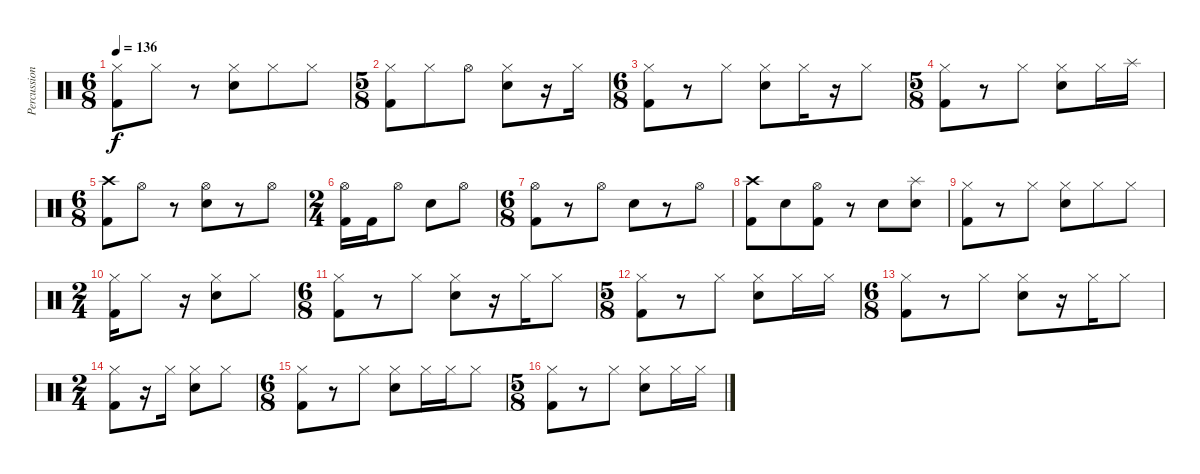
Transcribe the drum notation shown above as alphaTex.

\track ("Percussion" "Percussion") {instrument percussion}
\staff {score}
\articulation defaults
\ts (6 8)
\tempo 136
\clef neutral
\ks c
("Hi-Hat (closed)" "Kick (hit) 2").8{dy f} "Hi-Hat (closed)".8 r.8 ("Hi-Hat (closed)" "Snare (hit) 2").8 "Hi-Hat (closed)".8 "Hi-Hat (closed)".8 |
\ts (5 8)
("Hi-Hat (closed)" "Kick (hit) 2").8 "Hi-Hat (closed)".8 "Hi-Hat (open)".8 ("Hi-Hat (closed)" "Snare (hit) 2").8 r.16 "Hi-Hat (closed)".16 |
\ts (6 8)
("Hi-Hat (closed)" "Kick (hit) 2").8 r.8 "Hi-Hat (closed)".8 ("Hi-Hat (closed)" "Snare (hit) 2").8 "Hi-Hat (closed)".16 r.16 "Hi-Hat (closed)".8 |
\ts (5 8)
("Hi-Hat (closed)" "Kick (hit) 2").8 r.8 "Hi-Hat (closed)".8 ("Hi-Hat (closed)" "Snare (hit) 2").8 "Hi-Hat (closed)".16 "Splash (hit)".16 |
\ts (6 8)
("Crash high (hit)" "Kick (hit) 2").8 "Hi-Hat (open)".8 r.8 ("Hi-Hat (open)" "Snare (hit) 2").8 r.8 "Hi-Hat (open)".8 |
\ts (2 4)
("Hi-Hat (open)" "Kick (hit) 2").16 "Kick (hit) 2".16 "Hi-Hat (open)".8 "Snare (hit) 2".8 "Hi-Hat (open)".8 |
\ts (6 8)
("Hi-Hat (open)" "Kick (hit) 2").8 r.8 "Hi-Hat (open)".8 "Snare (hit) 2".8 r.8 "Hi-Hat (open)".8 |
("Crash high (hit)" "Kick (hit) 2").8 "Snare (hit) 2".8 ("Hi-Hat (open)" "Kick (hit) 2").8 r.8 "Snare (hit) 2".8 ("Splash (hit)" "Snare (hit) 2").8 |
("Hi-Hat (closed)" "Kick (hit) 2").8 r.8 "Hi-Hat (closed)".8 ("Hi-Hat (closed)" "Snare (hit) 2").8 "Hi-Hat (closed)".8 "Hi-Hat (closed)".8 |
\ts (2 4)
("Hi-Hat (closed)" "Kick (hit) 2").16 "Hi-Hat (closed)".8 r.16 ("Hi-Hat (closed)" "Snare (hit) 2").8 "Hi-Hat (closed)".8 |
\ts (6 8)
("Hi-Hat (closed)" "Kick (hit) 2").8 r.8 "Hi-Hat (closed)".8 ("Hi-Hat (closed)" "Snare (hit) 2").8 r.16 "Hi-Hat (closed)".16 "Hi-Hat (closed)".8 |
\ts (5 8)
("Hi-Hat (closed)" "Kick (hit) 2").8 r.8 "Hi-Hat (closed)".8 ("Hi-Hat (closed)" "Snare (hit) 2").8 "Hi-Hat (closed)".16 "Hi-Hat (closed)".16 |
\ts (6 8)
("Hi-Hat (closed)" "Kick (hit) 2").8 r.8 "Hi-Hat (closed)".8 ("Hi-Hat (closed)" "Snare (hit) 2").8 r.16 "Hi-Hat (closed)".16 "Hi-Hat (closed)".8 |
\ts (2 4)
("Hi-Hat (closed)" "Kick (hit) 2").8 r.16 "Hi-Hat (closed)".16 ("Hi-Hat (closed)" "Snare (hit) 2").8 "Hi-Hat (closed)".8 |
\ts (6 8)
("Hi-Hat (closed)" "Kick (hit) 2").8 r.8 "Hi-Hat (closed)".8 ("Hi-Hat (closed)" "Snare (hit) 2").8 "Hi-Hat (closed)".16 "Hi-Hat (closed)".16 "Hi-Hat (closed)".8 |
\ts (5 8)
("Hi-Hat (closed)" "Kick (hit) 2").8 r.8 "Hi-Hat (closed)".8 ("Hi-Hat (closed)" "Snare (hit) 2").8 "Hi-Hat (closed)".16 "Hi-Hat (closed)".16
